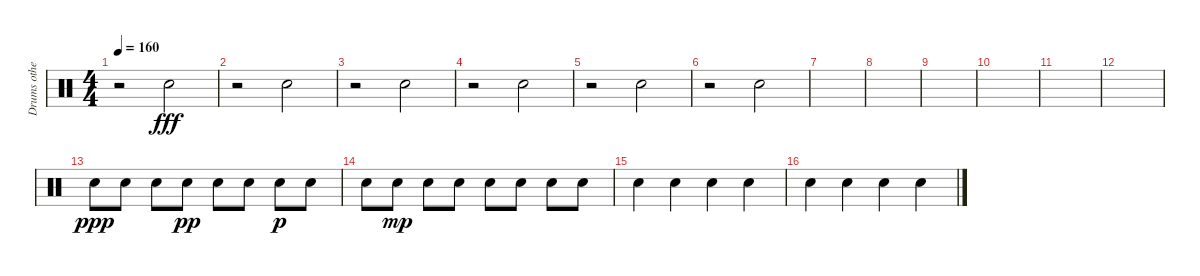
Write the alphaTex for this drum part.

\track ("Drums others" "Drums othe") {instrument percussion}
\staff {score}
\articulation defaults
\ts (4 4)
\tempo 160
\clef neutral
\ks c
r.2{dy fff} "Snare (hit) 2".2 |
r.2 "Snare (hit) 2".2 |
r.2 "Snare (hit) 2".2 |
r.2 "Snare (hit) 2".2 |
r.2 "Snare (hit) 2".2 |
r.2 "Snare (hit) 2".2 |
|
|
|
|
|
|
"Snare (hit) 2".8{dy ppp} "Snare (hit) 2".8 "Snare (hit) 2".8 "Snare (hit) 2".8{dy pp} "Snare (hit) 2".8 "Snare (hit) 2".8 "Snare (hit) 2".8{dy p} "Snare (hit) 2".8 |
"Snare (hit) 2".8 "Snare (hit) 2".8{dy mp} "Snare (hit) 2".8 "Snare (hit) 2".8 "Snare (hit) 2".8 "Snare (hit) 2".8 "Snare (hit) 2".8 "Snare (hit) 2".8 |
"Snare (hit) 2".4 "Snare (hit) 2".4 "Snare (hit) 2".4 "Snare (hit) 2".4 |
"Snare (hit) 2".4 "Snare (hit) 2".4 "Snare (hit) 2".4 "Snare (hit) 2".4
